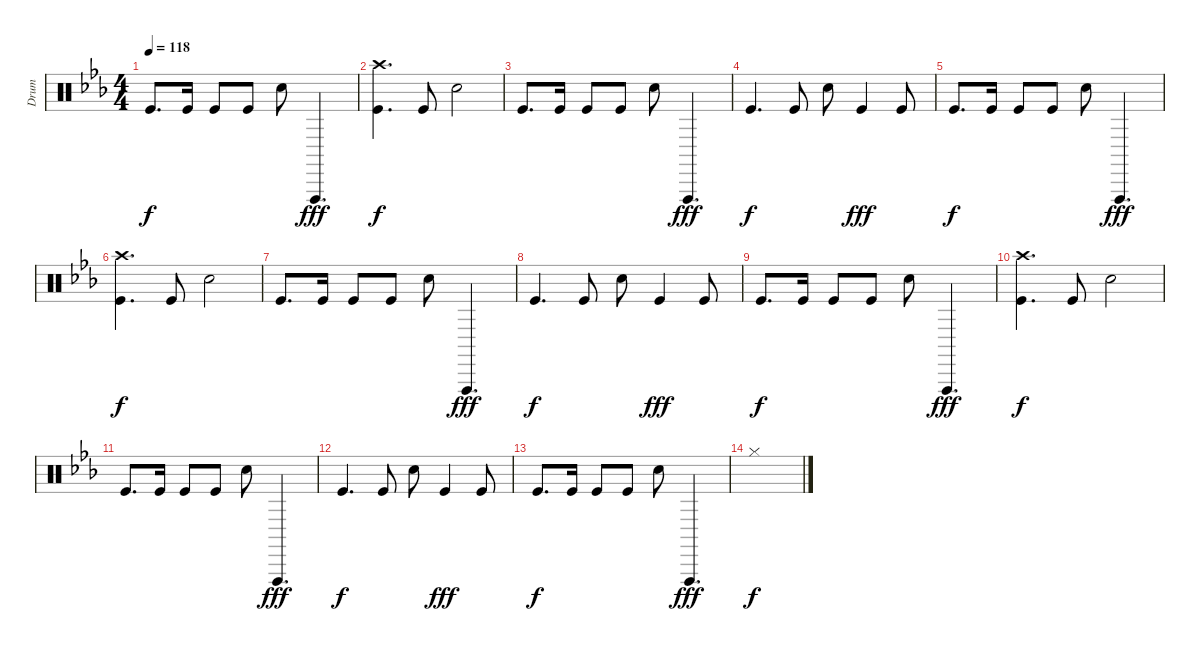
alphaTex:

\track ("Drum" "Drum") {instrument percussion}
\staff {score}
\articulation defaults
\ts (4 4)
\tempo 118
\clef neutral
\ks eb "Kick (hit)".8{d dy f} "Kick (hit)".16 "Kick (hit)".8 "Kick (hit)".8 "Hand Clap (hit)".8 "Vibraslap (hit)".4{d dy fff}
|
("Crash high (hit)" "Kick (hit)").4{d dy f} "Kick (hit)".8 "Hand Clap (hit)".2 |
"Kick (hit)".8{d} "Kick (hit)".16 "Kick (hit)".8 "Kick (hit)".8 "Hand Clap (hit)".8 "Vibraslap (hit)".4{d dy fff} |
"Kick (hit)".4{d dy f} "Kick (hit)".8 "Hand Clap (hit)".8 "Kick (hit)".4{dy fff} "Kick (hit)".8 |
"Kick (hit)".8{d dy f} "Kick (hit)".16 "Kick (hit)".8 "Kick (hit)".8 "Hand Clap (hit)".8 "Vibraslap (hit)".4{d dy fff} |
("Crash high (hit)" "Kick (hit)").4{d dy f} "Kick (hit)".8 "Hand Clap (hit)".2 |
"Kick (hit)".8{d} "Kick (hit)".16 "Kick (hit)".8 "Kick (hit)".8 "Hand Clap (hit)".8 "Vibraslap (hit)".4{d dy fff} |
"Kick (hit)".4{d dy f} "Kick (hit)".8 "Hand Clap (hit)".8 "Kick (hit)".4{dy fff} "Kick (hit)".8 |
"Kick (hit)".8{d dy f} "Kick (hit)".16 "Kick (hit)".8 "Kick (hit)".8 "Hand Clap (hit)".8 "Vibraslap (hit)".4{d dy fff} |
("Crash high (hit)" "Kick (hit)").4{d dy f} "Kick (hit)".8 "Hand Clap (hit)".2 |
"Kick (hit)".8{d} "Kick (hit)".16 "Kick (hit)".8 "Kick (hit)".8 "Hand Clap (hit)".8 "Vibraslap (hit)".4{d dy fff} |
"Kick (hit)".4{d dy f} "Kick (hit)".8 "Hand Clap (hit)".8 "Kick (hit)".4{dy fff} "Kick (hit)".8 |
"Kick (hit)".8{d dy f} "Kick (hit)".16 "Kick (hit)".8 "Kick (hit)".8 "Hand Clap (hit)".8 "Vibraslap (hit)".4{d dy fff} |
"Hi-Hat (closed)".1{dy f}
